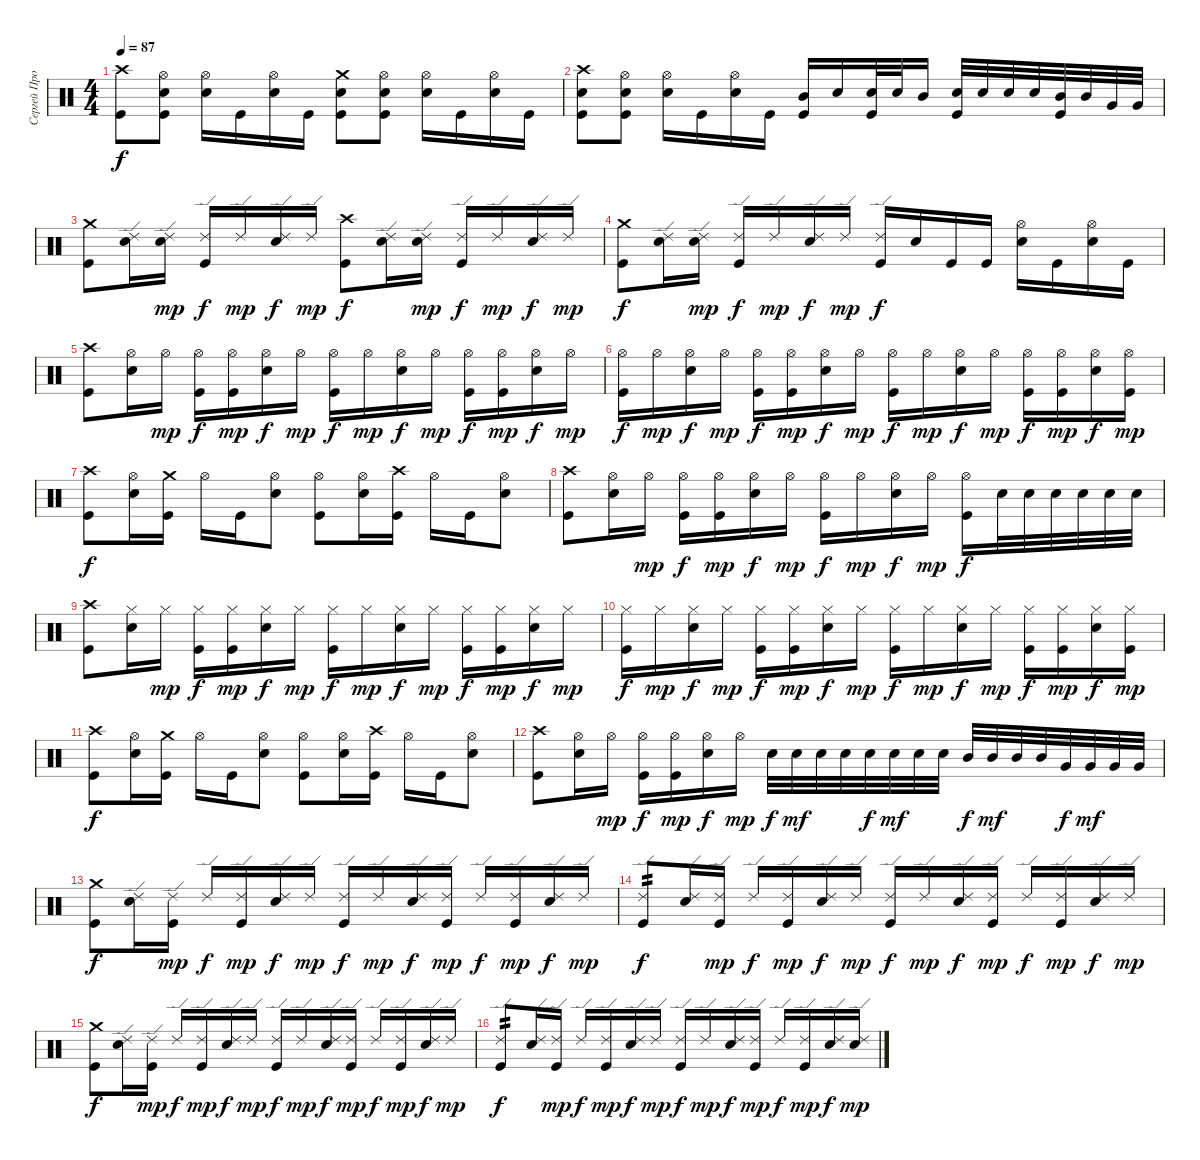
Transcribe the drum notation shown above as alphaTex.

\track ("Сергей Прокофьев" "Сергей Про") {instrument percussion}
\staff {score}
\articulation defaults
\ts (4 4)
\tempo 87
\clef neutral
\ks c
("Crash high (hit)" "Kick (hit)").8{dy f} ("Hi-Hat (open)" "Electric Snare (hit)" "Kick (hit)").8 ("Hi-Hat (open)" "Electric Snare (hit)").16 "Kick (hit)".16 ("Hi-Hat (open)" "Electric Snare (hit)").16 "Kick (hit)".16 ("Crash medium (hit)" "Electric Snare (hit)" "Kick (hit)").8 ("Hi-Hat (open)" "Electric Snare (hit)" "Kick (hit)").8 ("Hi-Hat (open)" "Electric Snare (hit)").16 "Kick (hit)".16 ("Hi-Hat (open)" "Electric Snare (hit)").16 "Kick (hit)".16 |
("Crash high (hit)" "Electric Snare (hit)" "Kick (hit)").8 ("Hi-Hat (open)" "Electric Snare (hit)" "Kick (hit)").8 ("Hi-Hat (open)" "Electric Snare (hit)").16 "Kick (hit)".16 ("Hi-Hat (open)" "Electric Snare (hit)").16 "Kick (hit)".16 ("Mid Tom (hit)" "Kick (hit)").16 "Electric Snare (hit)".16 ("Electric Snare (hit)" "Kick (hit)").32 "Electric Snare (hit)".32 "Mid Tom (hit)".16 ("Electric Snare (hit)" "Kick (hit)").32 "Electric Snare (hit)".32 "Electric Snare (hit)".32 "Electric Snare (hit)".32 ("Mid Tom (hit)" "Kick (hit)").32 "Mid Tom (hit)".32 "Very Low Tom (hit)".32 "Very Low Tom (hit)".32 |
("Crash medium (hit)" "Kick (hit)").8 ("Ride (edge) 2" "Electric Snare (hit)").16 ("Ride (edge) 2" "Electric Snare (hit)").16{dy mp} ("Ride (edge) 2" "Kick (hit)").16{dy f} "Ride (edge) 2".16{dy mp} ("Ride (edge) 2" "Electric Snare (hit)").16{dy f} "Ride (edge) 2".16{dy mp} ("Crash high (hit)" "Kick (hit)").8{dy f} ("Ride (edge) 2" "Electric Snare (hit)").16 ("Ride (edge) 2" "Electric Snare (hit)").16{dy mp} ("Ride (edge) 2" "Kick (hit)").16{dy f} "Ride (edge) 2".16{dy mp} ("Ride (edge) 2" "Electric Snare (hit)").16{dy f} "Ride (edge) 2".16{dy mp} |
("Crash medium (hit)" "Kick (hit)").8{dy f} ("Ride (edge) 2" "Electric Snare (hit)").16 ("Ride (edge) 2" "Electric Snare (hit)").16{dy mp} ("Ride (edge) 2" "Kick (hit)").16{dy f} "Ride (edge) 2".16{dy mp} ("Ride (edge) 2" "Electric Snare (hit)").16{dy f} "Ride (edge) 2".16{dy mp} ("Ride (edge) 2" "Kick (hit)").16{dy f} "Electric Snare (hit)".16 "Kick (hit)".16 "Kick (hit)".16 ("Hi-Hat (open)" "Electric Snare (hit)").16 "Kick (hit)".16 ("Hi-Hat (open)" "Electric Snare (hit)").16 "Kick (hit)".16 |
("Crash high (hit)" "Kick (hit)").8 ("Hi-Hat (open)" "Electric Snare (hit)").16 "Hi-Hat (open)".16{dy mp} ("Hi-Hat (open)" "Kick (hit)").16{dy f} ("Hi-Hat (open)" "Kick (hit)").16{dy mp} ("Hi-Hat (open)" "Electric Snare (hit)").16{dy f} "Hi-Hat (open)".16{dy mp} ("Hi-Hat (open)" "Kick (hit)").16{dy f} "Hi-Hat (open)".16{dy mp} ("Hi-Hat (open)" "Electric Snare (hit)").16{dy f} "Hi-Hat (open)".16{dy mp} ("Hi-Hat (open)" "Kick (hit)").16{dy f} ("Hi-Hat (open)" "Kick (hit)").16{dy mp} ("Hi-Hat (open)" "Electric Snare (hit)").16{dy f} "Hi-Hat (open)".16{dy mp} |
("Hi-Hat (open)" "Kick (hit)").16{dy f} "Hi-Hat (open)".16{dy mp} ("Hi-Hat (open)" "Electric Snare (hit)").16{dy f} "Hi-Hat (open)".16{dy mp} ("Hi-Hat (open)" "Kick (hit)").16{dy f} ("Hi-Hat (open)" "Kick (hit)").16{dy mp} ("Hi-Hat (open)" "Electric Snare (hit)").16{dy f} "Hi-Hat (open)".16{dy mp} ("Hi-Hat (open)" "Kick (hit)").16{dy f} "Hi-Hat (open)".16{dy mp} ("Hi-Hat (open)" "Electric Snare (hit)").16{dy f} "Hi-Hat (open)".16{dy mp} ("Hi-Hat (open)" "Kick (hit)").16{dy f} ("Hi-Hat (open)" "Kick (hit)").16{dy mp} ("Hi-Hat (open)" "Electric Snare (hit)").16{dy f} ("Hi-Hat (open)" "Kick (hit)").16{dy mp} |
("Crash high (hit)" "Kick (hit)").8{dy f} ("Hi-Hat (open)" "Electric Snare (hit)").16 ("Crash medium (hit)" "Kick (hit)").16 "Hi-Hat (open)".16 "Kick (hit)".16 ("Hi-Hat (open)" "Electric Snare (hit)").8 ("Hi-Hat (open)" "Kick (hit)").8 ("Hi-Hat (open)" "Electric Snare (hit)").16 ("Crash high (hit)" "Kick (hit)").16 "Hi-Hat (open)".16 "Kick (hit)".16 ("Hi-Hat (open)" "Electric Snare (hit)").8 |
("Crash high (hit)" "Kick (hit)").8 ("Hi-Hat (open)" "Electric Snare (hit)").16 "Hi-Hat (open)".16{dy mp} ("Hi-Hat (open)" "Kick (hit)").16{dy f} ("Hi-Hat (open)" "Kick (hit)").16{dy mp} ("Hi-Hat (open)" "Electric Snare (hit)").16{dy f} "Hi-Hat (open)".16{dy mp} ("Hi-Hat (open)" "Kick (hit)").16{dy f} "Hi-Hat (open)".16{dy mp} ("Hi-Hat (open)" "Electric Snare (hit)").16{dy f} "Hi-Hat (open)".16{dy mp} ("Hi-Hat (open)" "Kick (hit)").16{dy f} "Electric Snare (hit)".32 "Electric Snare (hit)".32 "Electric Snare (hit)".32 "Electric Snare (hit)".32 "Electric Snare (hit)".32 "Electric Snare (hit)".32 |
("Crash high (hit)" "Kick (hit)").8 ("Hi-Hat (closed)" "Electric Snare (hit)").16 "Hi-Hat (closed)".16{dy mp} ("Hi-Hat (closed)" "Kick (hit)").16{dy f} ("Hi-Hat (closed)" "Kick (hit)").16{dy mp} ("Hi-Hat (closed)" "Electric Snare (hit)").16{dy f} "Hi-Hat (closed)".16{dy mp} ("Hi-Hat (closed)" "Kick (hit)").16{dy f} "Hi-Hat (closed)".16{dy mp} ("Hi-Hat (closed)" "Electric Snare (hit)").16{dy f} "Hi-Hat (closed)".16{dy mp} ("Hi-Hat (closed)" "Kick (hit)").16{dy f} ("Hi-Hat (closed)" "Kick (hit)").16{dy mp} ("Hi-Hat (closed)" "Electric Snare (hit)").16{dy f} "Hi-Hat (closed)".16{dy mp} |
("Hi-Hat (closed)" "Kick (hit)").16{dy f} "Hi-Hat (closed)".16{dy mp} ("Hi-Hat (closed)" "Electric Snare (hit)").16{dy f} "Hi-Hat (closed)".16{dy mp} ("Hi-Hat (closed)" "Kick (hit)").16{dy f} ("Hi-Hat (closed)" "Kick (hit)").16{dy mp} ("Hi-Hat (closed)" "Electric Snare (hit)").16{dy f} "Hi-Hat (closed)".16{dy mp} ("Hi-Hat (closed)" "Kick (hit)").16{dy f} "Hi-Hat (closed)".16{dy mp} ("Hi-Hat (closed)" "Electric Snare (hit)").16{dy f} "Hi-Hat (closed)".16{dy mp} ("Hi-Hat (closed)" "Kick (hit)").16{dy f} ("Hi-Hat (closed)" "Kick (hit)").16{dy mp} ("Hi-Hat (closed)" "Electric Snare (hit)").16{dy f} ("Hi-Hat (closed)" "Kick (hit)").16{dy mp} |
("Crash high (hit)" "Kick (hit)").8{dy f} ("Hi-Hat (open)" "Electric Snare (hit)").16 ("Crash medium (hit)" "Kick (hit)").16 "Hi-Hat (open)".16 "Kick (hit)".16 ("Hi-Hat (open)" "Electric Snare (hit)").8 ("Hi-Hat (open)" "Kick (hit)").8 ("Hi-Hat (open)" "Electric Snare (hit)").16 ("Crash high (hit)" "Kick (hit)").16 "Hi-Hat (open)".16 "Kick (hit)".16 ("Hi-Hat (open)" "Electric Snare (hit)").8 |
("Crash high (hit)" "Kick (hit)").8 ("Hi-Hat (open)" "Electric Snare (hit)").16 "Hi-Hat (open)".16{dy mp} ("Hi-Hat (open)" "Kick (hit)").16{dy f} ("Hi-Hat (open)" "Kick (hit)").16{dy mp} ("Hi-Hat (open)" "Electric Snare (hit)").16{dy f} "Hi-Hat (open)".16{dy mp} "Electric Snare (hit)".32{dy f} "Electric Snare (hit)".32{dy mf} "Electric Snare (hit)".32 "Electric Snare (hit)".32 "Electric Snare (hit)".32{dy f} "Electric Snare (hit)".32{dy mf} "Electric Snare (hit)".32 "Electric Snare (hit)".32 "Mid Tom (hit)".32{dy f} "Mid Tom (hit)".32{dy mf} "Mid Tom (hit)".32 "Mid Tom (hit)".32 "Very Low Tom (hit)".32{dy f} "Very Low Tom (hit)".32{dy mf} "Very Low Tom (hit)".32 "Very Low Tom (hit)".32 |
("Crash medium (hit)" "Kick (hit)").8{dy f} ("Ride (edge) 2" "Electric Snare (hit)").16 ("Ride (edge) 2" "Kick (hit)").16{dy mp} "Ride (edge) 2".16{dy f} ("Ride (edge) 2" "Kick (hit)").16{dy mp} ("Ride (edge) 2" "Electric Snare (hit)").16{dy f} "Ride (edge) 2".16{dy mp} ("Ride (edge) 2" "Kick (hit)").16{dy f} "Ride (edge) 2".16{dy mp} ("Ride (edge) 2" "Electric Snare (hit)").16{dy f} ("Ride (edge) 2" "Kick (hit)").16{dy mp} "Ride (edge) 2".16{dy f} ("Ride (edge) 2" "Kick (hit)").16{dy mp} ("Ride (edge) 2" "Electric Snare (hit)").16{dy f} "Ride (edge) 2".16{dy mp} |
("Ride (edge) 2" "Kick (hit)").8{tp 2 dy f} ("Ride (edge) 2" "Electric Snare (hit)").16 ("Ride (edge) 2" "Kick (hit)").16{dy mp} "Ride (edge) 2".16{dy f} ("Ride (edge) 2" "Kick (hit)").16{dy mp} ("Ride (edge) 2" "Electric Snare (hit)").16{dy f} "Ride (edge) 2".16{dy mp} ("Ride (edge) 2" "Kick (hit)").16{dy f} "Ride (edge) 2".16{dy mp} ("Ride (edge) 2" "Electric Snare (hit)").16{dy f} ("Ride (edge) 2" "Kick (hit)").16{dy mp} "Ride (edge) 2".16{dy f} ("Ride (edge) 2" "Kick (hit)").16{dy mp} ("Ride (edge) 2" "Electric Snare (hit)").16{dy f} "Ride (edge) 2".16{dy mp} |
("Crash medium (hit)" "Kick (hit)").8{dy f} ("Ride (edge) 2" "Electric Snare (hit)").16 ("Ride (edge) 2" "Kick (hit)").16{dy mp} "Ride (edge) 2".16{dy f} ("Ride (edge) 2" "Kick (hit)").16{dy mp} ("Ride (edge) 2" "Electric Snare (hit)").16{dy f} "Ride (edge) 2".16{dy mp} ("Ride (edge) 2" "Kick (hit)").16{dy f} "Ride (edge) 2".16{dy mp} ("Ride (edge) 2" "Electric Snare (hit)").16{dy f} ("Ride (edge) 2" "Kick (hit)").16{dy mp} "Ride (edge) 2".16{dy f} ("Ride (edge) 2" "Kick (hit)").16{dy mp} ("Ride (edge) 2" "Electric Snare (hit)").16{dy f} "Ride (edge) 2".16{dy mp} |
("Ride (edge) 2" "Kick (hit)").8{tp 2 dy f} ("Ride (edge) 2" "Electric Snare (hit)").16 ("Ride (edge) 2" "Kick (hit)").16{dy mp} "Ride (edge) 2".16{dy f} ("Ride (edge) 2" "Kick (hit)").16{dy mp} ("Ride (edge) 2" "Electric Snare (hit)").16{dy f} "Ride (edge) 2".16{dy mp} ("Ride (edge) 2" "Kick (hit)").16{dy f} "Ride (edge) 2".16{dy mp} ("Ride (edge) 2" "Electric Snare (hit)").16{dy f} ("Ride (edge) 2" "Kick (hit)").16{dy mp} "Ride (edge) 2".16{dy f} ("Ride (edge) 2" "Kick (hit)").16{dy mp} ("Ride (edge) 2" "Electric Snare (hit)").16{dy f} ("Ride (edge) 2" "Electric Snare (hit)").16{dy mp}
